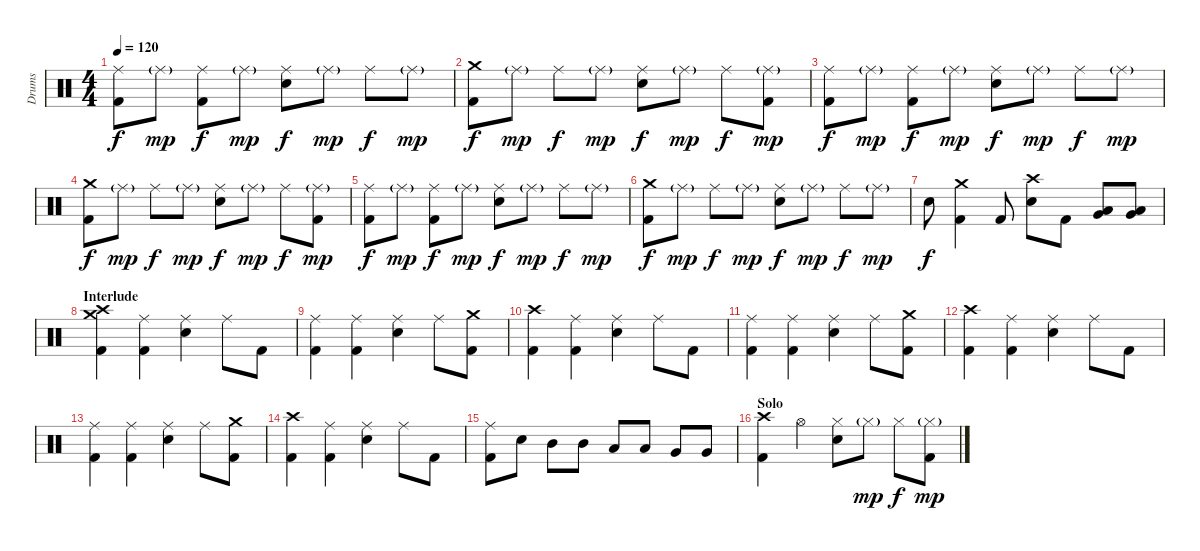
\track ("Drums" "Drums") {instrument percussion}
\staff {score}
\articulation defaults
\ts (4 4)
\tempo 120
\clef neutral
\ks c
("Ride (middle)" "Kick (hit) 2").8{dy f} "Ride (middle)"{g}.8{dy mp} ("Ride (middle)" "Kick (hit) 2").8{dy f} "Ride (middle)"{g}.8{dy mp} ("Ride (middle)" "Snare (hit) 2").8{dy f} "Ride (middle)"{g}.8{dy mp} "Ride (middle)".8{dy f} "Ride (middle)"{g}.8{dy mp} |
("Crash medium (hit)" "Kick (hit) 2").8{dy f} "Ride (middle)"{g}.8{dy mp} "Ride (middle)".8{dy f} "Ride (middle)"{g}.8{dy mp} ("Ride (middle)" "Snare (hit) 2").8{dy f} "Ride (middle)"{g}.8{dy mp} "Ride (middle)".8{dy f} ("Ride (middle)"{g} "Kick (hit) 2").8{dy mp} |
("Ride (middle)" "Kick (hit) 2").8{dy f} "Ride (middle)"{g}.8{dy mp} ("Ride (middle)" "Kick (hit) 2").8{dy f} "Ride (middle)"{g}.8{dy mp} ("Ride (middle)" "Snare (hit) 2").8{dy f} "Ride (middle)"{g}.8{dy mp} "Ride (middle)".8{dy f} "Ride (middle)"{g}.8{dy mp} |
("Crash medium (hit)" "Kick (hit) 2").8{dy f} "Ride (middle)"{g}.8{dy mp} "Ride (middle)".8{dy f} "Ride (middle)"{g}.8{dy mp} ("Ride (middle)" "Snare (hit) 2").8{dy f} "Ride (middle)"{g}.8{dy mp} "Ride (middle)".8{dy f} ("Ride (middle)"{g} "Kick (hit) 2").8{dy mp} |
("Ride (middle)" "Kick (hit) 2").8{dy f} "Ride (middle)"{g}.8{dy mp} ("Ride (middle)" "Kick (hit) 2").8{dy f} "Ride (middle)"{g}.8{dy mp} ("Ride (middle)" "Snare (hit) 2").8{dy f} "Ride (middle)"{g}.8{dy mp} "Ride (middle)".8{dy f} "Ride (middle)"{g}.8{dy mp} |
("Crash medium (hit)" "Kick (hit) 2").8{dy f} "Ride (middle)"{g}.8{dy mp} "Ride (middle)".8{dy f} "Ride (middle)"{g}.8{dy mp} ("Ride (middle)" "Snare (hit) 2").8{dy f} "Ride (middle)"{g}.8{dy mp} "Ride (middle)".8{dy f} "Ride (middle)"{g}.8{dy mp} |
"Snare (hit) 2".8{dy f} ("Crash medium (hit)" "Kick (hit) 2").4 "Kick (hit) 2".8 ("Crash high (hit)" "Snare (hit) 2").8 "Kick (hit) 2".8 ("Low Tom (hit)" "Very Low Tom (hit)").8 ("Low Tom (hit)" "Very Low Tom (hit)").8 |
\section ("" "Interlude")
("Crash medium (hit)" "Crash high (hit)" "Kick (hit) 2").4 ("Ride (middle)" "Kick (hit) 2").4 ("Ride (middle)" "Snare (hit) 2").4 "Ride (middle)".8 "Kick (hit) 2".8 |
("Ride (middle)" "Kick (hit) 2").4 ("Ride (middle)" "Kick (hit) 2").4 ("Ride (middle)" "Snare (hit) 2").4 "Ride (middle)".8 ("Crash medium (hit)" "Kick (hit) 2").8 |
("Crash high (hit)" "Kick (hit) 2").4 ("Ride (middle)" "Kick (hit) 2").4 ("Ride (middle)" "Snare (hit) 2").4 "Ride (middle)".8 "Kick (hit) 2".8 |
("Ride (middle)" "Kick (hit) 2").4 ("Ride (middle)" "Kick (hit) 2").4 ("Ride (middle)" "Snare (hit) 2").4 "Ride (middle)".8 ("Crash medium (hit)" "Kick (hit) 2").8 |
("Crash high (hit)" "Kick (hit) 2").4 ("Ride (middle)" "Kick (hit) 2").4 ("Ride (middle)" "Snare (hit) 2").4 "Ride (middle)".8 "Kick (hit) 2".8 |
("Ride (middle)" "Kick (hit) 2").4 ("Ride (middle)" "Kick (hit) 2").4 ("Ride (middle)" "Snare (hit) 2").4 "Ride (middle)".8 ("Crash medium (hit)" "Kick (hit) 2").8 |
("Crash high (hit)" "Kick (hit) 2").4 ("Ride (middle)" "Kick (hit) 2").4 ("Ride (middle)" "Snare (hit) 2").4 "Ride (middle)".8 "Kick (hit) 2".8 |
("Ride (middle)" "Kick (hit) 2").8 "Snare (hit) 2".8 "Mid Tom (hit)".8 "Mid Tom (hit)".8 "Low Tom (hit)".8 "Low Tom (hit)".8 "Very Low Tom (hit)".8 "Very Low Tom (hit)".8 |
\section ("" "Solo")
("Crash high (hit)" "Kick (hit) 2").4 "Hi-Hat (open)".4 ("Hi-Hat (closed)" "Snare (hit) 2").8 "Hi-Hat (closed)"{g}.8{dy mp} "Hi-Hat (closed)".8{dy f} ("Hi-Hat (closed)"{g} "Kick (hit) 2").8{dy mp}
